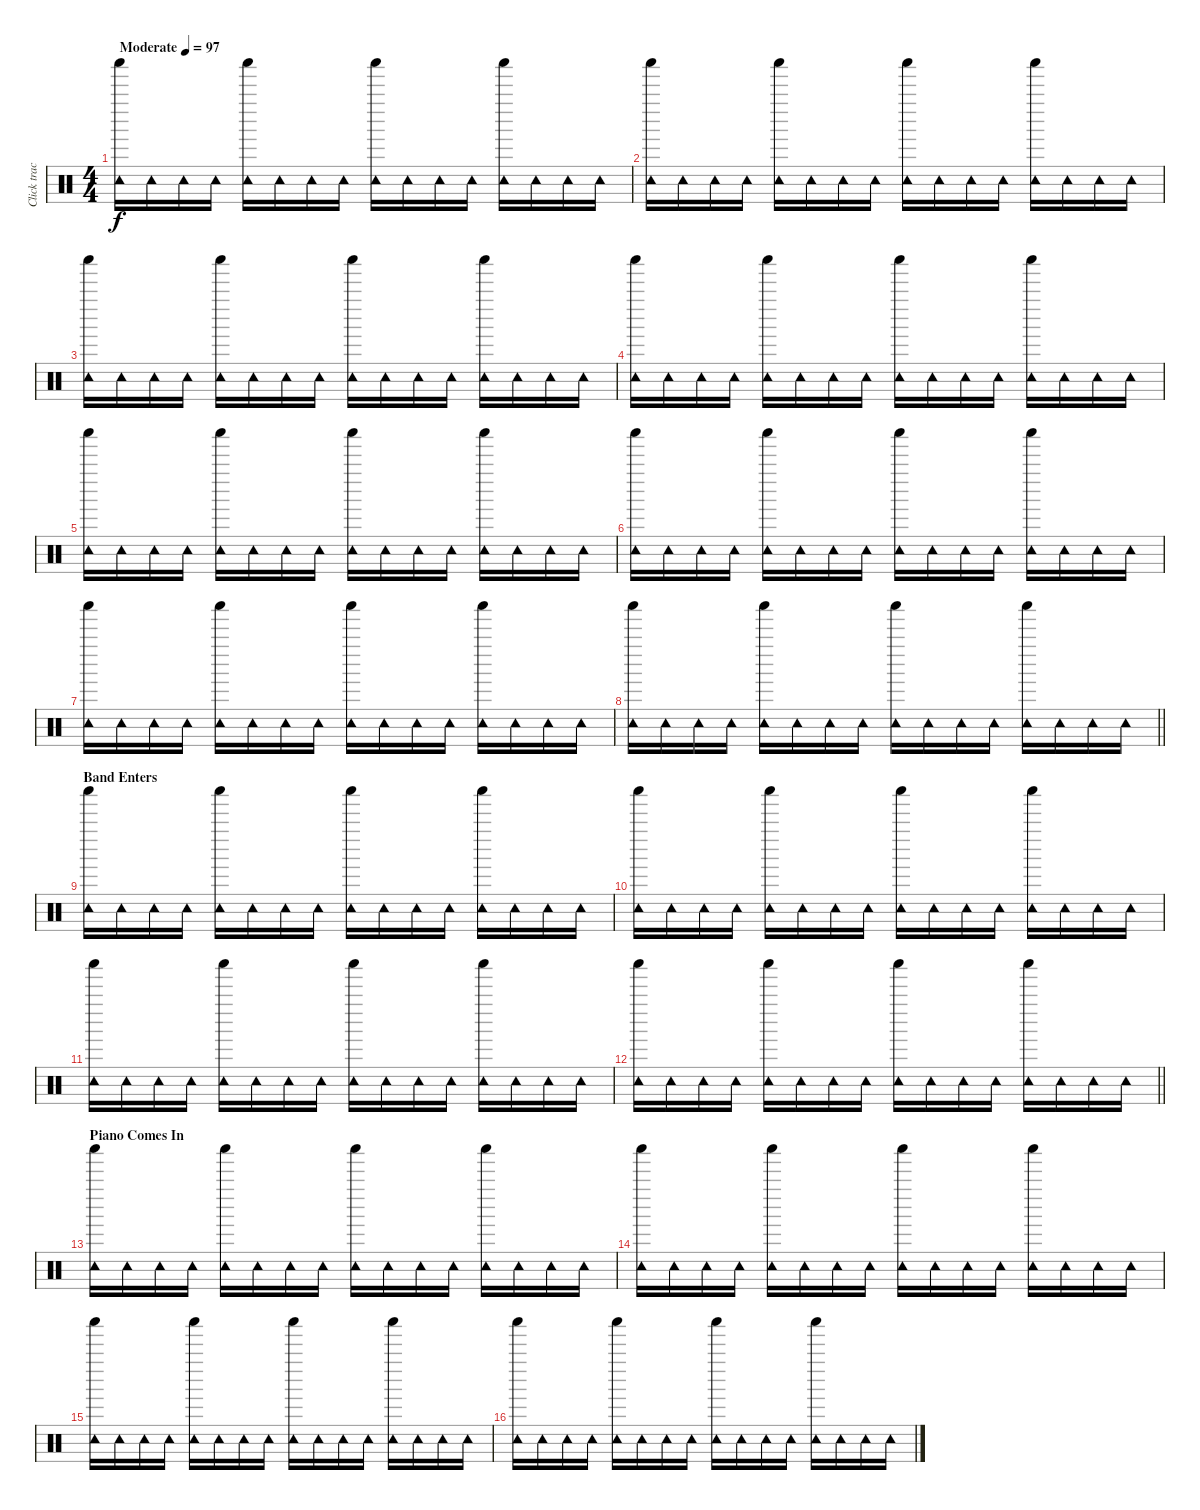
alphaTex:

\track ("Click track" "Click trac") {instrument percussion}
\staff {score}
\articulation defaults
\ts (4 4)
\tempo (97 "Moderate")
\clef neutral
\ks c
("Shaker (hit)" "Tambourine (hit)").16{dy f} "Tambourine (hit)".16 "Tambourine (hit)".16 "Tambourine (hit)".16 ("Shaker (hit)" "Tambourine (hit)").16 "Tambourine (hit)".16 "Tambourine (hit)".16 "Tambourine (hit)".16 ("Shaker (hit)" "Tambourine (hit)").16 "Tambourine (hit)".16 "Tambourine (hit)".16 "Tambourine (hit)".16 ("Shaker (hit)" "Tambourine (hit)").16 "Tambourine (hit)".16 "Tambourine (hit)".16 "Tambourine (hit)".16 |
("Shaker (hit)" "Tambourine (hit)").16 "Tambourine (hit)".16 "Tambourine (hit)".16 "Tambourine (hit)".16 ("Shaker (hit)" "Tambourine (hit)").16 "Tambourine (hit)".16 "Tambourine (hit)".16 "Tambourine (hit)".16 ("Shaker (hit)" "Tambourine (hit)").16 "Tambourine (hit)".16 "Tambourine (hit)".16 "Tambourine (hit)".16 ("Shaker (hit)" "Tambourine (hit)").16 "Tambourine (hit)".16 "Tambourine (hit)".16 "Tambourine (hit)".16 |
("Shaker (hit)" "Tambourine (hit)").16 "Tambourine (hit)".16 "Tambourine (hit)".16 "Tambourine (hit)".16 ("Shaker (hit)" "Tambourine (hit)").16 "Tambourine (hit)".16 "Tambourine (hit)".16 "Tambourine (hit)".16 ("Shaker (hit)" "Tambourine (hit)").16 "Tambourine (hit)".16 "Tambourine (hit)".16 "Tambourine (hit)".16 ("Shaker (hit)" "Tambourine (hit)").16 "Tambourine (hit)".16 "Tambourine (hit)".16 "Tambourine (hit)".16 |
("Shaker (hit)" "Tambourine (hit)").16 "Tambourine (hit)".16 "Tambourine (hit)".16 "Tambourine (hit)".16 ("Shaker (hit)" "Tambourine (hit)").16 "Tambourine (hit)".16 "Tambourine (hit)".16 "Tambourine (hit)".16 ("Shaker (hit)" "Tambourine (hit)").16 "Tambourine (hit)".16 "Tambourine (hit)".16 "Tambourine (hit)".16 ("Shaker (hit)" "Tambourine (hit)").16 "Tambourine (hit)".16 "Tambourine (hit)".16 "Tambourine (hit)".16 |
("Shaker (hit)" "Tambourine (hit)").16 "Tambourine (hit)".16 "Tambourine (hit)".16 "Tambourine (hit)".16 ("Shaker (hit)" "Tambourine (hit)").16 "Tambourine (hit)".16 "Tambourine (hit)".16 "Tambourine (hit)".16 ("Shaker (hit)" "Tambourine (hit)").16 "Tambourine (hit)".16 "Tambourine (hit)".16 "Tambourine (hit)".16 ("Shaker (hit)" "Tambourine (hit)").16 "Tambourine (hit)".16 "Tambourine (hit)".16 "Tambourine (hit)".16 |
("Shaker (hit)" "Tambourine (hit)").16 "Tambourine (hit)".16 "Tambourine (hit)".16 "Tambourine (hit)".16 ("Shaker (hit)" "Tambourine (hit)").16 "Tambourine (hit)".16 "Tambourine (hit)".16 "Tambourine (hit)".16 ("Shaker (hit)" "Tambourine (hit)").16 "Tambourine (hit)".16 "Tambourine (hit)".16 "Tambourine (hit)".16 ("Shaker (hit)" "Tambourine (hit)").16 "Tambourine (hit)".16 "Tambourine (hit)".16 "Tambourine (hit)".16 |
("Shaker (hit)" "Tambourine (hit)").16 "Tambourine (hit)".16 "Tambourine (hit)".16 "Tambourine (hit)".16 ("Shaker (hit)" "Tambourine (hit)").16 "Tambourine (hit)".16 "Tambourine (hit)".16 "Tambourine (hit)".16 ("Shaker (hit)" "Tambourine (hit)").16 "Tambourine (hit)".16 "Tambourine (hit)".16 "Tambourine (hit)".16 ("Shaker (hit)" "Tambourine (hit)").16 "Tambourine (hit)".16 "Tambourine (hit)".16 "Tambourine (hit)".16 |
\barLineRight lightlight
("Shaker (hit)" "Tambourine (hit)").16 "Tambourine (hit)".16 "Tambourine (hit)".16 "Tambourine (hit)".16 ("Shaker (hit)" "Tambourine (hit)").16 "Tambourine (hit)".16 "Tambourine (hit)".16 "Tambourine (hit)".16 ("Shaker (hit)" "Tambourine (hit)").16 "Tambourine (hit)".16 "Tambourine (hit)".16 "Tambourine (hit)".16 ("Shaker (hit)" "Tambourine (hit)").16 "Tambourine (hit)".16 "Tambourine (hit)".16 "Tambourine (hit)".16 |
\section ("" "Band Enters")
("Shaker (hit)" "Tambourine (hit)").16 "Tambourine (hit)".16 "Tambourine (hit)".16 "Tambourine (hit)".16 ("Shaker (hit)" "Tambourine (hit)").16 "Tambourine (hit)".16 "Tambourine (hit)".16 "Tambourine (hit)".16 ("Shaker (hit)" "Tambourine (hit)").16 "Tambourine (hit)".16 "Tambourine (hit)".16 "Tambourine (hit)".16 ("Shaker (hit)" "Tambourine (hit)").16 "Tambourine (hit)".16 "Tambourine (hit)".16 "Tambourine (hit)".16 |
("Shaker (hit)" "Tambourine (hit)").16 "Tambourine (hit)".16 "Tambourine (hit)".16 "Tambourine (hit)".16 ("Shaker (hit)" "Tambourine (hit)").16 "Tambourine (hit)".16 "Tambourine (hit)".16 "Tambourine (hit)".16 ("Shaker (hit)" "Tambourine (hit)").16 "Tambourine (hit)".16 "Tambourine (hit)".16 "Tambourine (hit)".16 ("Shaker (hit)" "Tambourine (hit)").16 "Tambourine (hit)".16 "Tambourine (hit)".16 "Tambourine (hit)".16 |
("Shaker (hit)" "Tambourine (hit)").16 "Tambourine (hit)".16 "Tambourine (hit)".16 "Tambourine (hit)".16 ("Shaker (hit)" "Tambourine (hit)").16 "Tambourine (hit)".16 "Tambourine (hit)".16 "Tambourine (hit)".16 ("Shaker (hit)" "Tambourine (hit)").16 "Tambourine (hit)".16 "Tambourine (hit)".16 "Tambourine (hit)".16 ("Shaker (hit)" "Tambourine (hit)").16 "Tambourine (hit)".16 "Tambourine (hit)".16 "Tambourine (hit)".16 |
\barLineRight lightlight
("Shaker (hit)" "Tambourine (hit)").16 "Tambourine (hit)".16 "Tambourine (hit)".16 "Tambourine (hit)".16 ("Shaker (hit)" "Tambourine (hit)").16 "Tambourine (hit)".16 "Tambourine (hit)".16 "Tambourine (hit)".16 ("Shaker (hit)" "Tambourine (hit)").16 "Tambourine (hit)".16 "Tambourine (hit)".16 "Tambourine (hit)".16 ("Shaker (hit)" "Tambourine (hit)").16 "Tambourine (hit)".16 "Tambourine (hit)".16 "Tambourine (hit)".16 |
\section ("" "Piano Comes In")
("Shaker (hit)" "Tambourine (hit)").16 "Tambourine (hit)".16 "Tambourine (hit)".16 "Tambourine (hit)".16 ("Shaker (hit)" "Tambourine (hit)").16 "Tambourine (hit)".16 "Tambourine (hit)".16 "Tambourine (hit)".16 ("Shaker (hit)" "Tambourine (hit)").16 "Tambourine (hit)".16 "Tambourine (hit)".16 "Tambourine (hit)".16 ("Shaker (hit)" "Tambourine (hit)").16 "Tambourine (hit)".16 "Tambourine (hit)".16 "Tambourine (hit)".16 |
("Shaker (hit)" "Tambourine (hit)").16 "Tambourine (hit)".16 "Tambourine (hit)".16 "Tambourine (hit)".16 ("Shaker (hit)" "Tambourine (hit)").16 "Tambourine (hit)".16 "Tambourine (hit)".16 "Tambourine (hit)".16 ("Shaker (hit)" "Tambourine (hit)").16 "Tambourine (hit)".16 "Tambourine (hit)".16 "Tambourine (hit)".16 ("Shaker (hit)" "Tambourine (hit)").16 "Tambourine (hit)".16 "Tambourine (hit)".16 "Tambourine (hit)".16 |
("Shaker (hit)" "Tambourine (hit)").16 "Tambourine (hit)".16 "Tambourine (hit)".16 "Tambourine (hit)".16 ("Shaker (hit)" "Tambourine (hit)").16 "Tambourine (hit)".16 "Tambourine (hit)".16 "Tambourine (hit)".16 ("Shaker (hit)" "Tambourine (hit)").16 "Tambourine (hit)".16 "Tambourine (hit)".16 "Tambourine (hit)".16 ("Shaker (hit)" "Tambourine (hit)").16 "Tambourine (hit)".16 "Tambourine (hit)".16 "Tambourine (hit)".16 |
("Shaker (hit)" "Tambourine (hit)").16 "Tambourine (hit)".16 "Tambourine (hit)".16 "Tambourine (hit)".16 ("Shaker (hit)" "Tambourine (hit)").16 "Tambourine (hit)".16 "Tambourine (hit)".16 "Tambourine (hit)".16 ("Shaker (hit)" "Tambourine (hit)").16 "Tambourine (hit)".16 "Tambourine (hit)".16 "Tambourine (hit)".16 ("Shaker (hit)" "Tambourine (hit)").16 "Tambourine (hit)".16 "Tambourine (hit)".16 "Tambourine (hit)".16
